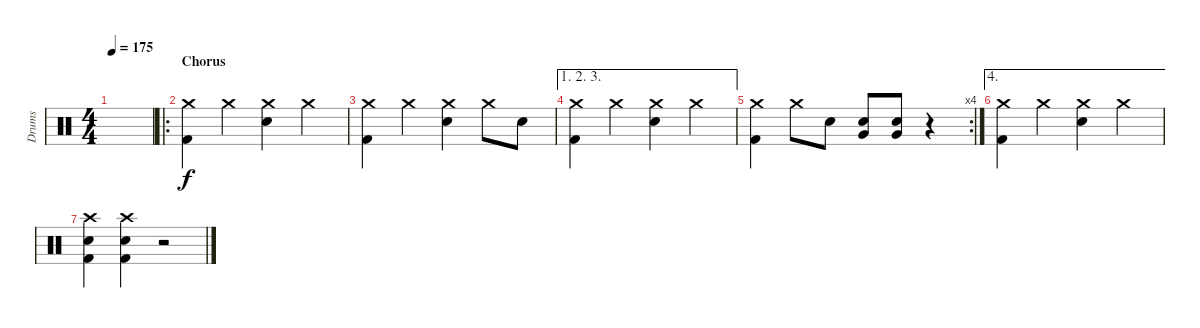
\track ("Drums" "Drums") {instrument percussion}
\staff {score}
\articulation defaults
\ts (4 4)
\tempo 175
\clef neutral
\ks c
|
\ro
\section ("" "Chorus")
("Crash medium (hit)" "Kick (hit) 2").4 "Crash medium (hit)".4 ("Crash medium (hit)" "Snare (hit) 2").4 "Crash medium (hit)".4 |
("Crash medium (hit)" "Kick (hit) 2").4 "Crash medium (hit)".4 ("Crash medium (hit)" "Snare (hit) 2").4 "Crash medium (hit)".8 "Snare (hit) 2".8 |
\ae (1 2 3)
("Crash medium (hit)" "Kick (hit) 2").4 "Crash medium (hit)".4 ("Crash medium (hit)" "Snare (hit) 2").4 "Crash medium (hit)".4 |
\rc 4
("Crash medium (hit)" "Kick (hit) 2").4 "Crash medium (hit)".8 "Snare (hit) 2".8 ("Very Low Tom (hit)" "Snare (hit) 2").8 ("Very Low Tom (hit)" "Snare (hit) 2").8 r.4 |
\ae 4
("Crash medium (hit)" "Kick (hit) 2").4 "Crash medium (hit)".4 ("Crash medium (hit)" "Snare (hit) 2").4 "Crash medium (hit)".4 |
("Crash high (hit)" "Snare (hit) 2" "Kick (hit) 2").4 ("Crash high (hit)" "Snare (hit) 2" "Kick (hit) 2").4 r.2
